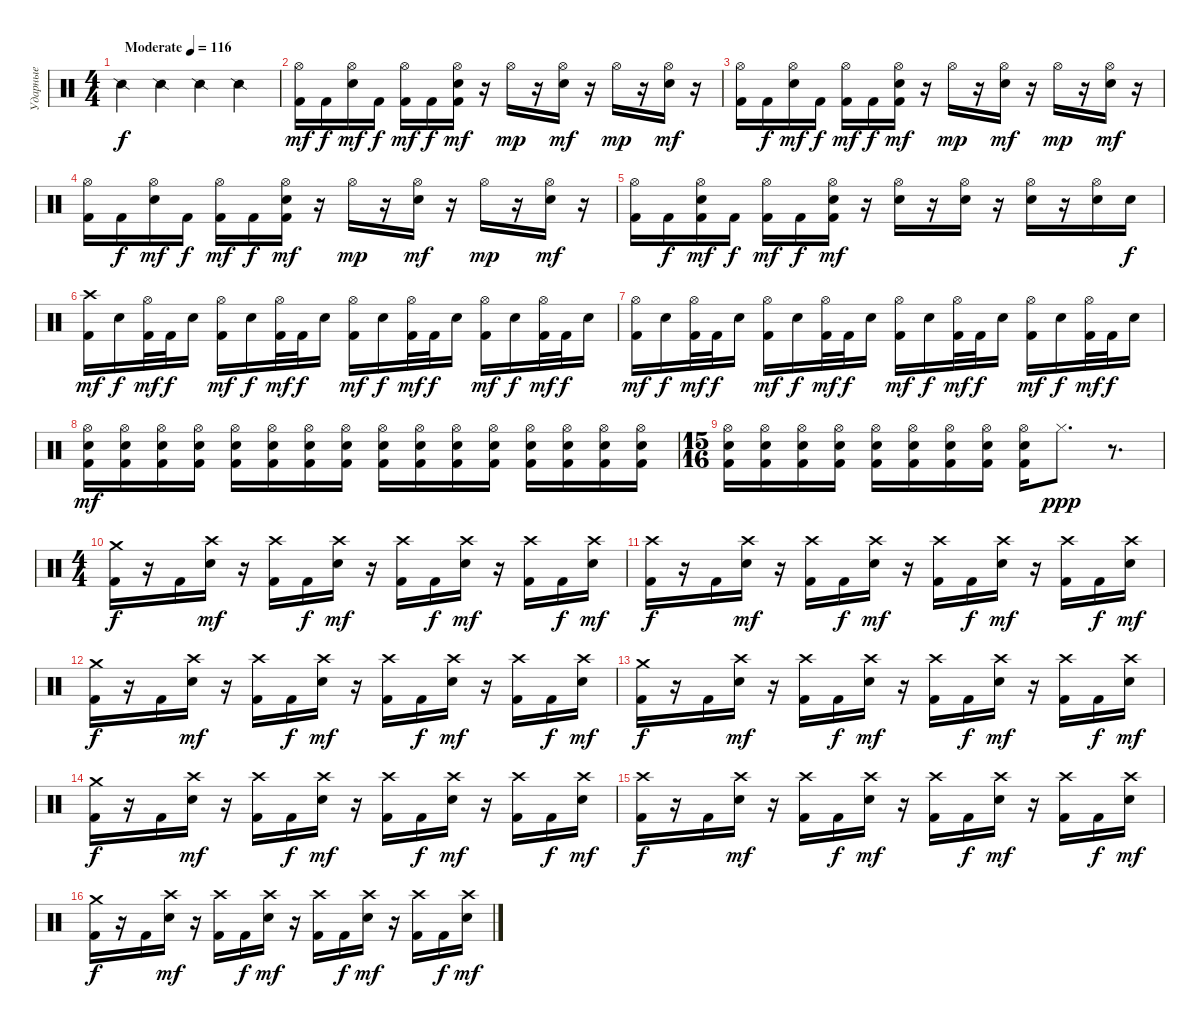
\track ("Ударные" "Ударные") {instrument percussion}
\staff {score}
\articulation defaults
\ts (4 4)
\tempo (116 "Moderate")
\clef neutral
\ks c "Snare (side stick) 2".4{dy f} "Snare (side stick) 2".4 "Snare (side stick) 2".4 "Snare (side stick) 2".4
|
("Hi-Hat (open)" "Kick (hit) 2").16{dy mf} "Kick (hit) 2".16{dy f} ("Hi-Hat (open)" "Electric Snare (hit)").16{dy mf} "Kick (hit) 2".16{dy f} ("Hi-Hat (open)" "Kick (hit) 2").16{dy mf} "Kick (hit) 2".16{dy f} ("Hi-Hat (open)" "Electric Snare (hit)" "Kick (hit) 2").16{dy mf} r.16 "Hi-Hat (open)".16{dy mp} r.16 ("Hi-Hat (open)" "Electric Snare (hit)").16{dy mf} r.16 "Hi-Hat (open)".16{dy mp} r.16 ("Hi-Hat (open)" "Electric Snare (hit)").16{dy mf} r.16 |
("Hi-Hat (open)" "Kick (hit) 2").16 "Kick (hit) 2".16{dy f} ("Hi-Hat (open)" "Electric Snare (hit)").16{dy mf} "Kick (hit) 2".16{dy f} ("Hi-Hat (open)" "Kick (hit) 2").16{dy mf} "Kick (hit) 2".16{dy f} ("Hi-Hat (open)" "Electric Snare (hit)" "Kick (hit) 2").16{dy mf} r.16 "Hi-Hat (open)".16{dy mp} r.16 ("Hi-Hat (open)" "Electric Snare (hit)").16{dy mf} r.16 "Hi-Hat (open)".16{dy mp} r.16 ("Hi-Hat (open)" "Electric Snare (hit)").16{dy mf} r.16 |
("Hi-Hat (open)" "Kick (hit) 2").16 "Kick (hit) 2".16{dy f} ("Hi-Hat (open)" "Electric Snare (hit)").16{dy mf} "Kick (hit) 2".16{dy f} ("Hi-Hat (open)" "Kick (hit) 2").16{dy mf} "Kick (hit) 2".16{dy f} ("Hi-Hat (open)" "Electric Snare (hit)" "Kick (hit) 2").16{dy mf} r.16 "Hi-Hat (open)".16{dy mp} r.16 ("Hi-Hat (open)" "Electric Snare (hit)").16{dy mf} r.16 "Hi-Hat (open)".16{dy mp} r.16 ("Hi-Hat (open)" "Electric Snare (hit)").16{dy mf} r.16 |
("Hi-Hat (open)" "Kick (hit) 2").16 "Kick (hit) 2".16{dy f} ("Hi-Hat (open)" "Electric Snare (hit)" "Kick (hit) 2").16{dy mf} "Kick (hit) 2".16{dy f} ("Hi-Hat (open)" "Kick (hit) 2").16{dy mf} "Kick (hit) 2".16{dy f} ("Hi-Hat (open)" "Electric Snare (hit)" "Kick (hit) 2").16{dy mf} r.16 ("Hi-Hat (open)" "Electric Snare (hit)").16 r.16 ("Hi-Hat (open)" "Electric Snare (hit)").16 r.16 ("Hi-Hat (open)" "Electric Snare (hit)").16 r.16 ("Hi-Hat (open)" "Electric Snare (hit)").16 "Electric Snare (hit)".16{dy f} |
("Crash high (hit)" "Kick (hit) 2").16{dy mf} "Electric Snare (hit)".16{dy f} ("Hi-Hat (open)" "Kick (hit) 2").32{dy mf} "Kick (hit) 2".32{dy f} "Electric Snare (hit)".16 ("Hi-Hat (open)" "Kick (hit) 2").16{dy mf} "Electric Snare (hit)".16{dy f} ("Hi-Hat (open)" "Kick (hit) 2").32{dy mf} "Kick (hit) 2".32{dy f} "Electric Snare (hit)".16 ("Hi-Hat (open)" "Kick (hit) 2").16{dy mf} "Electric Snare (hit)".16{dy f} ("Hi-Hat (open)" "Kick (hit) 2").32{dy mf} "Kick (hit) 2".32{dy f} "Electric Snare (hit)".16 ("Hi-Hat (open)" "Kick (hit) 2").16{dy mf} "Electric Snare (hit)".16{dy f} ("Hi-Hat (open)" "Kick (hit) 2").32{dy mf} "Kick (hit) 2".32{dy f} "Electric Snare (hit)".16 |
("Hi-Hat (open)" "Kick (hit) 2").16{dy mf} "Electric Snare (hit)".16{dy f} ("Hi-Hat (open)" "Kick (hit) 2").32{dy mf} "Kick (hit) 2".32{dy f} "Electric Snare (hit)".16 ("Hi-Hat (open)" "Kick (hit) 2").16{dy mf} "Electric Snare (hit)".16{dy f} ("Hi-Hat (open)" "Kick (hit) 2").32{dy mf} "Kick (hit) 2".32{dy f} "Electric Snare (hit)".16 ("Hi-Hat (open)" "Kick (hit) 2").16{dy mf} "Electric Snare (hit)".16{dy f} ("Hi-Hat (open)" "Kick (hit) 2").32{dy mf} "Kick (hit) 2".32{dy f} "Electric Snare (hit)".16 ("Hi-Hat (open)" "Kick (hit) 2").16{dy mf} "Electric Snare (hit)".16{dy f} ("Hi-Hat (open)" "Kick (hit) 2").32{dy mf} "Kick (hit) 2".32{dy f} "Electric Snare (hit)".16 |
("Hi-Hat (open)" "Electric Snare (hit)" "Kick (hit) 2").16{dy mf} ("Hi-Hat (open)" "Electric Snare (hit)" "Kick (hit) 2").16 ("Hi-Hat (open)" "Electric Snare (hit)" "Kick (hit) 2").16 ("Hi-Hat (open)" "Electric Snare (hit)" "Kick (hit) 2").16 ("Hi-Hat (open)" "Electric Snare (hit)" "Kick (hit) 2").16 ("Hi-Hat (open)" "Electric Snare (hit)" "Kick (hit) 2").16 ("Hi-Hat (open)" "Electric Snare (hit)" "Kick (hit) 2").16 ("Hi-Hat (open)" "Electric Snare (hit)" "Kick (hit) 2").16 ("Hi-Hat (open)" "Electric Snare (hit)" "Kick (hit) 2").16 ("Hi-Hat (open)" "Electric Snare (hit)" "Kick (hit) 2").16 ("Hi-Hat (open)" "Electric Snare (hit)" "Kick (hit) 2").16 ("Hi-Hat (open)" "Electric Snare (hit)" "Kick (hit) 2").16 ("Hi-Hat (open)" "Electric Snare (hit)" "Kick (hit) 2").16 ("Hi-Hat (open)" "Electric Snare (hit)" "Kick (hit) 2").16 ("Hi-Hat (open)" "Electric Snare (hit)" "Kick (hit) 2").16 ("Hi-Hat (open)" "Electric Snare (hit)" "Kick (hit) 2").16 |
\ts (15 16)
("Hi-Hat (open)" "Electric Snare (hit)" "Kick (hit) 2").16 ("Hi-Hat (open)" "Electric Snare (hit)" "Kick (hit) 2").16 ("Hi-Hat (open)" "Electric Snare (hit)" "Kick (hit) 2").16 ("Hi-Hat (open)" "Electric Snare (hit)" "Kick (hit) 2").16 ("Hi-Hat (open)" "Electric Snare (hit)" "Kick (hit) 2").16 ("Hi-Hat (open)" "Electric Snare (hit)" "Kick (hit) 2").16 ("Hi-Hat (open)" "Electric Snare (hit)" "Kick (hit) 2").16 ("Hi-Hat (open)" "Electric Snare (hit)" "Kick (hit) 2").16 ("Hi-Hat (open)" "Electric Snare (hit)" "Kick (hit) 2").16 "Hi-Hat (closed)".8{d dy ppp} r.8{d} |
\ts (4 4)
("Crash medium (hit)" "Kick (hit) 2").16{dy f} r.16 "Kick (hit) 2".16 ("Crash high (hit)" "Electric Snare (hit)").16{dy mf} r.16 ("Crash high (hit)" "Kick (hit) 2").16 "Kick (hit) 2".16{dy f} ("Crash high (hit)" "Electric Snare (hit)").16{dy mf} r.16 ("Crash high (hit)" "Kick (hit) 2").16 "Kick (hit) 2".16{dy f} ("Crash high (hit)" "Electric Snare (hit)").16{dy mf} r.16 ("Crash high (hit)" "Kick (hit) 2").16 "Kick (hit) 2".16{dy f} ("Crash high (hit)" "Electric Snare (hit)").16{dy mf} |
("Crash high (hit)" "Kick (hit) 2").16{dy f} r.16 "Kick (hit) 2".16 ("Crash high (hit)" "Electric Snare (hit)").16{dy mf} r.16 ("Crash high (hit)" "Kick (hit) 2").16 "Kick (hit) 2".16{dy f} ("Crash high (hit)" "Electric Snare (hit)").16{dy mf} r.16 ("Crash high (hit)" "Kick (hit) 2").16 "Kick (hit) 2".16{dy f} ("Crash high (hit)" "Electric Snare (hit)").16{dy mf} r.16 ("Crash high (hit)" "Kick (hit) 2").16 "Kick (hit) 2".16{dy f} ("Crash high (hit)" "Electric Snare (hit)").16{dy mf} |
("Crash medium (hit)" "Kick (hit) 2").16{dy f} r.16 "Kick (hit) 2".16 ("Crash high (hit)" "Electric Snare (hit)").16{dy mf} r.16 ("Crash high (hit)" "Kick (hit) 2").16 "Kick (hit) 2".16{dy f} ("Crash high (hit)" "Electric Snare (hit)").16{dy mf} r.16 ("Crash high (hit)" "Kick (hit) 2").16 "Kick (hit) 2".16{dy f} ("Crash high (hit)" "Electric Snare (hit)").16{dy mf} r.16 ("Crash high (hit)" "Kick (hit) 2").16 "Kick (hit) 2".16{dy f} ("Crash high (hit)" "Electric Snare (hit)").16{dy mf} |
("Crash medium (hit)" "Kick (hit) 2").16{dy f} r.16 "Kick (hit) 2".16 ("Crash high (hit)" "Electric Snare (hit)").16{dy mf} r.16 ("Crash high (hit)" "Kick (hit) 2").16 "Kick (hit) 2".16{dy f} ("Crash high (hit)" "Electric Snare (hit)").16{dy mf} r.16 ("Crash high (hit)" "Kick (hit) 2").16 "Kick (hit) 2".16{dy f} ("Crash high (hit)" "Electric Snare (hit)").16{dy mf} r.16 ("Crash high (hit)" "Kick (hit) 2").16 "Kick (hit) 2".16{dy f} ("Crash high (hit)" "Electric Snare (hit)").16{dy mf} |
("Crash medium (hit)" "Kick (hit) 2").16{dy f} r.16 "Kick (hit) 2".16 ("Crash high (hit)" "Electric Snare (hit)").16{dy mf} r.16 ("Crash high (hit)" "Kick (hit) 2").16 "Kick (hit) 2".16{dy f} ("Crash high (hit)" "Electric Snare (hit)").16{dy mf} r.16 ("Crash high (hit)" "Kick (hit) 2").16 "Kick (hit) 2".16{dy f} ("Crash high (hit)" "Electric Snare (hit)").16{dy mf} r.16 ("Crash high (hit)" "Kick (hit) 2").16 "Kick (hit) 2".16{dy f} ("Crash high (hit)" "Electric Snare (hit)").16{dy mf} |
("Crash high (hit)" "Kick (hit) 2").16{dy f} r.16 "Kick (hit) 2".16 ("Crash high (hit)" "Electric Snare (hit)").16{dy mf} r.16 ("Crash high (hit)" "Kick (hit) 2").16 "Kick (hit) 2".16{dy f} ("Crash high (hit)" "Electric Snare (hit)").16{dy mf} r.16 ("Crash high (hit)" "Kick (hit) 2").16 "Kick (hit) 2".16{dy f} ("Crash high (hit)" "Electric Snare (hit)").16{dy mf} r.16 ("Crash high (hit)" "Kick (hit) 2").16 "Kick (hit) 2".16{dy f} ("Crash high (hit)" "Electric Snare (hit)").16{dy mf} |
("Crash medium (hit)" "Kick (hit) 2").16{dy f} r.16 "Kick (hit) 2".16 ("Crash high (hit)" "Electric Snare (hit)").16{dy mf} r.16 ("Crash high (hit)" "Kick (hit) 2").16 "Kick (hit) 2".16{dy f} ("Crash high (hit)" "Electric Snare (hit)").16{dy mf} r.16 ("Crash high (hit)" "Kick (hit) 2").16 "Kick (hit) 2".16{dy f} ("Crash high (hit)" "Electric Snare (hit)").16{dy mf} r.16 ("Crash high (hit)" "Kick (hit) 2").16 "Kick (hit) 2".16{dy f} ("Crash high (hit)" "Electric Snare (hit)").16{dy mf}
